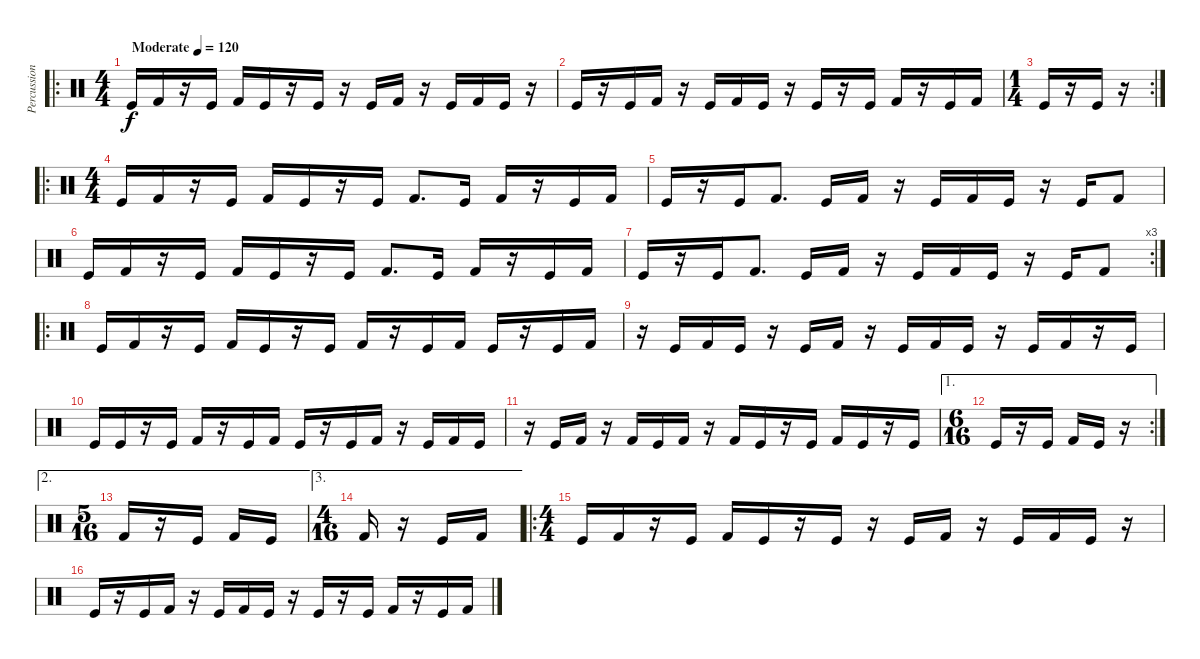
\track ("Percussion" "Percussion") {instrument percussion}
\staff {score}
\articulation defaults
\ro
\ts (4 4)
\tempo (120 "Moderate")
\clef neutral
\ks c "Kick (hit)".16{dy f} "Kick (hit) 2".16
r.16 "Kick (hit)".16 "Kick (hit) 2".16 "Kick (hit)".16 r.16 "Kick (hit)".16 r.16 "Kick (hit)".16 "Kick (hit) 2".16 r.16 "Kick (hit)".16 "Kick (hit) 2".16 "Kick (hit)".16 r.16 |
"Kick (hit)".16 r.16 "Kick (hit)".16 "Kick (hit) 2".16 r.16 "Kick (hit)".16 "Kick (hit) 2".16 "Kick (hit)".16 r.16 "Kick (hit)".16 r.16 "Kick (hit)".16 "Kick (hit) 2".16 r.16 "Kick (hit)".16 "Kick (hit) 2".16 |
\rc 2
\ts (1 4)
"Kick (hit)".16 r.16 "Kick (hit)".16 r.16 |
\ro
\ts (4 4)
"Kick (hit)".16 "Kick (hit) 2".16 r.16 "Kick (hit)".16 "Kick (hit) 2".16 "Kick (hit)".16 r.16 "Kick (hit)".16 "Kick (hit) 2".8{d} "Kick (hit)".16 "Kick (hit) 2".16 r.16 "Kick (hit)".16 "Kick (hit) 2".16 |
"Kick (hit)".16 r.16 "Kick (hit)".16 "Kick (hit) 2".8{d} "Kick (hit)".16 "Kick (hit) 2".16 r.16 "Kick (hit)".16 "Kick (hit) 2".16 "Kick (hit)".16 r.16 "Kick (hit)".16 "Kick (hit) 2".8 |
"Kick (hit)".16 "Kick (hit) 2".16 r.16 "Kick (hit)".16 "Kick (hit) 2".16 "Kick (hit)".16 r.16 "Kick (hit)".16 "Kick (hit) 2".8{d} "Kick (hit)".16 "Kick (hit) 2".16 r.16 "Kick (hit)".16 "Kick (hit) 2".16 |
\rc 3 "Kick (hit)".16
r.16 "Kick (hit)".16 "Kick (hit) 2".8{d} "Kick (hit)".16 "Kick (hit) 2".16 r.16 "Kick (hit)".16 "Kick (hit) 2".16 "Kick (hit)".16 r.16 "Kick (hit)".16 "Kick (hit) 2".8 |
\ro "Kick (hit)".16 "Kick (hit) 2".16
r.16 "Kick (hit)".16 "Kick (hit) 2".16 "Kick (hit)".16 r.16 "Kick (hit)".16 "Kick (hit) 2".16 r.16 "Kick (hit)".16 "Kick (hit) 2".16 "Kick (hit)".16 r.16 "Kick (hit)".16 "Kick (hit) 2".16 |
r.16 "Kick (hit)".16 "Kick (hit) 2".16 "Kick (hit)".16 r.16 "Kick (hit)".16 "Kick (hit) 2".16 r.16 "Kick (hit)".16 "Kick (hit) 2".16 "Kick (hit)".16 r.16 "Kick (hit)".16 "Kick (hit) 2".16 r.16 "Kick (hit)".16 |
"Kick (hit)".16 "Kick (hit)".16 r.16 "Kick (hit)".16 "Kick (hit) 2".16 r.16 "Kick (hit)".16 "Kick (hit) 2".16 "Kick (hit)".16 r.16 "Kick (hit)".16 "Kick (hit) 2".16 r.16 "Kick (hit)".16 "Kick (hit) 2".16 "Kick (hit)".16 |
r.16 "Kick (hit)".16 "Kick (hit) 2".16 r.16 "Kick (hit) 2".16 "Kick (hit)".16 "Kick (hit) 2".16 r.16 "Kick (hit) 2".16 "Kick (hit)".16 r.16 "Kick (hit)".16 "Kick (hit) 2".16 "Kick (hit)".16 r.16 "Kick (hit)".16 |
\ae 1
\rc 2
\ts (6 16)
"Kick (hit)".16 r.16 "Kick (hit)".16 "Kick (hit) 2".16 "Kick (hit)".16 r.16 |
\ae 2
\ts (5 16)
"Kick (hit) 2".16 r.16 "Kick (hit)".16 "Kick (hit) 2".16 "Kick (hit)".16 |
\ae 3
\ts (4 16)
"Kick (hit) 2".16 r.16 "Kick (hit)".16 "Kick (hit) 2".16 |
\ro
\ts (4 4)
"Kick (hit)".16 "Kick (hit) 2".16 r.16 "Kick (hit)".16 "Kick (hit) 2".16 "Kick (hit)".16 r.16 "Kick (hit)".16 r.16 "Kick (hit)".16 "Kick (hit) 2".16 r.16 "Kick (hit)".16 "Kick (hit) 2".16 "Kick (hit)".16 r.16 |
"Kick (hit)".16 r.16 "Kick (hit)".16 "Kick (hit) 2".16 r.16 "Kick (hit)".16 "Kick (hit) 2".16 "Kick (hit)".16 r.16 "Kick (hit)".16 r.16 "Kick (hit)".16 "Kick (hit) 2".16 r.16 "Kick (hit)".16 "Kick (hit) 2".16
